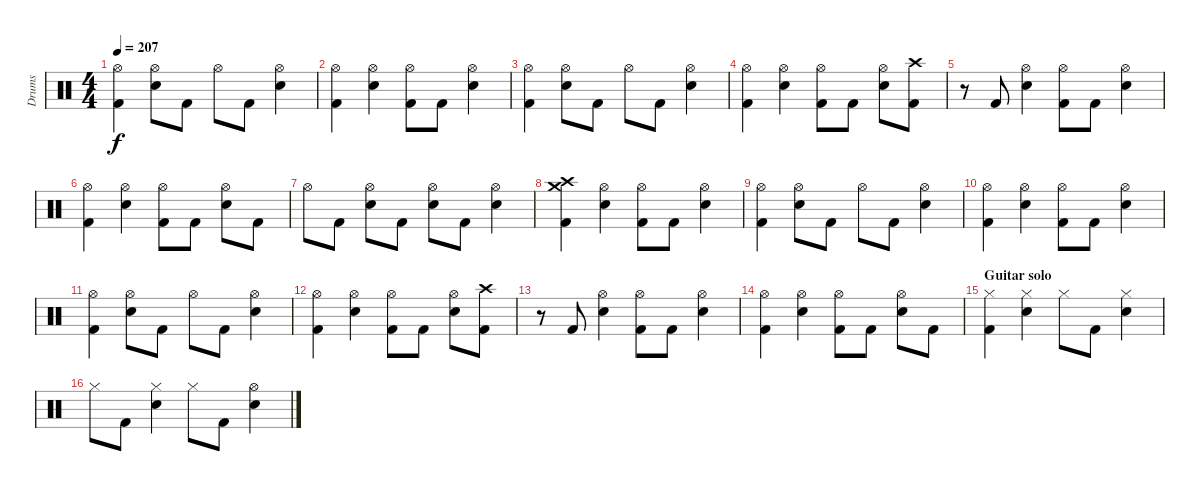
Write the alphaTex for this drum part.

\track ("Drums" "Drums") {instrument percussion}
\staff {score}
\articulation defaults
\ts (4 4)
\tempo 207
\clef neutral
\ks c
("Hi-Hat (open)" "Kick (hit) 2").4{dy f} ("Hi-Hat (open)" "Snare (hit) 2").8 "Kick (hit) 2".8 "Hi-Hat (open)".8 "Kick (hit) 2".8 ("Hi-Hat (open)" "Snare (hit) 2").4 |
("Hi-Hat (open)" "Kick (hit) 2").4 ("Hi-Hat (open)" "Snare (hit) 2").4 ("Hi-Hat (open)" "Kick (hit) 2").8 "Kick (hit) 2".8 ("Hi-Hat (open)" "Snare (hit) 2").4 |
("Hi-Hat (open)" "Kick (hit) 2").4 ("Hi-Hat (open)" "Snare (hit) 2").8 "Kick (hit) 2".8 "Hi-Hat (open)".8 "Kick (hit) 2".8 ("Hi-Hat (open)" "Snare (hit) 2").4 |
("Hi-Hat (open)" "Kick (hit) 2").4 ("Hi-Hat (open)" "Snare (hit) 2").4 ("Hi-Hat (open)" "Kick (hit) 2").8 "Kick (hit) 2".8 ("Hi-Hat (open)" "Snare (hit) 2").8 ("Crash high (hit)" "Kick (hit) 2").8 |
r.8 "Kick (hit) 2".8 ("Hi-Hat (open)" "Snare (hit) 2").4 ("Hi-Hat (open)" "Kick (hit) 2").8 "Kick (hit) 2".8 ("Hi-Hat (open)" "Snare (hit) 2").4 |
("Hi-Hat (open)" "Kick (hit) 2").4 ("Hi-Hat (open)" "Snare (hit) 2").4 ("Hi-Hat (open)" "Kick (hit) 2").8 "Kick (hit) 2".8 ("Hi-Hat (open)" "Snare (hit) 2").8 "Kick (hit) 2".8 |
"Hi-Hat (open)".8 "Kick (hit) 2".8 ("Hi-Hat (open)" "Snare (hit) 2").8 "Kick (hit) 2".8 ("Hi-Hat (open)" "Snare (hit) 2").8 "Kick (hit) 2".8 ("Hi-Hat (open)" "Snare (hit) 2").4 |
("Crash medium (hit)" "Crash high (hit)" "Kick (hit) 2").4 ("Hi-Hat (open)" "Snare (hit) 2").4 ("Hi-Hat (open)" "Kick (hit) 2").8 "Kick (hit) 2".8 ("Hi-Hat (open)" "Snare (hit) 2").4 |
("Hi-Hat (open)" "Kick (hit) 2").4 ("Hi-Hat (open)" "Snare (hit) 2").8 "Kick (hit) 2".8 "Hi-Hat (open)".8 "Kick (hit) 2".8 ("Hi-Hat (open)" "Snare (hit) 2").4 |
("Hi-Hat (open)" "Kick (hit) 2").4 ("Hi-Hat (open)" "Snare (hit) 2").4 ("Hi-Hat (open)" "Kick (hit) 2").8 "Kick (hit) 2".8 ("Hi-Hat (open)" "Snare (hit) 2").4 |
("Hi-Hat (open)" "Kick (hit) 2").4 ("Hi-Hat (open)" "Snare (hit) 2").8 "Kick (hit) 2".8 "Hi-Hat (open)".8 "Kick (hit) 2".8 ("Hi-Hat (open)" "Snare (hit) 2").4 |
("Hi-Hat (open)" "Kick (hit) 2").4 ("Hi-Hat (open)" "Snare (hit) 2").4 ("Hi-Hat (open)" "Kick (hit) 2").8 "Kick (hit) 2".8 ("Hi-Hat (open)" "Snare (hit) 2").8 ("Crash high (hit)" "Kick (hit) 2").8 |
r.8 "Kick (hit) 2".8 ("Hi-Hat (open)" "Snare (hit) 2").4 ("Hi-Hat (open)" "Kick (hit) 2").8 "Kick (hit) 2".8 ("Hi-Hat (open)" "Snare (hit) 2").4 |
("Hi-Hat (open)" "Kick (hit) 2").4 ("Hi-Hat (open)" "Snare (hit) 2").4 ("Hi-Hat (open)" "Kick (hit) 2").8 "Kick (hit) 2".8 ("Hi-Hat (open)" "Snare (hit) 2").8 "Kick (hit) 2".8 |
\section ("" "Guitar solo")
("Hi-Hat (closed)" "Kick (hit) 2").4 ("Hi-Hat (closed)" "Snare (hit) 2").4 "Hi-Hat (closed)".8 "Kick (hit) 2".8 ("Hi-Hat (closed)" "Snare (hit) 2").4 |
"Hi-Hat (closed)".8 "Kick (hit) 2".8 ("Hi-Hat (closed)" "Snare (hit) 2").4 "Hi-Hat (closed)".8 "Kick (hit) 2".8 ("Hi-Hat (open)" "Snare (hit) 2").4
